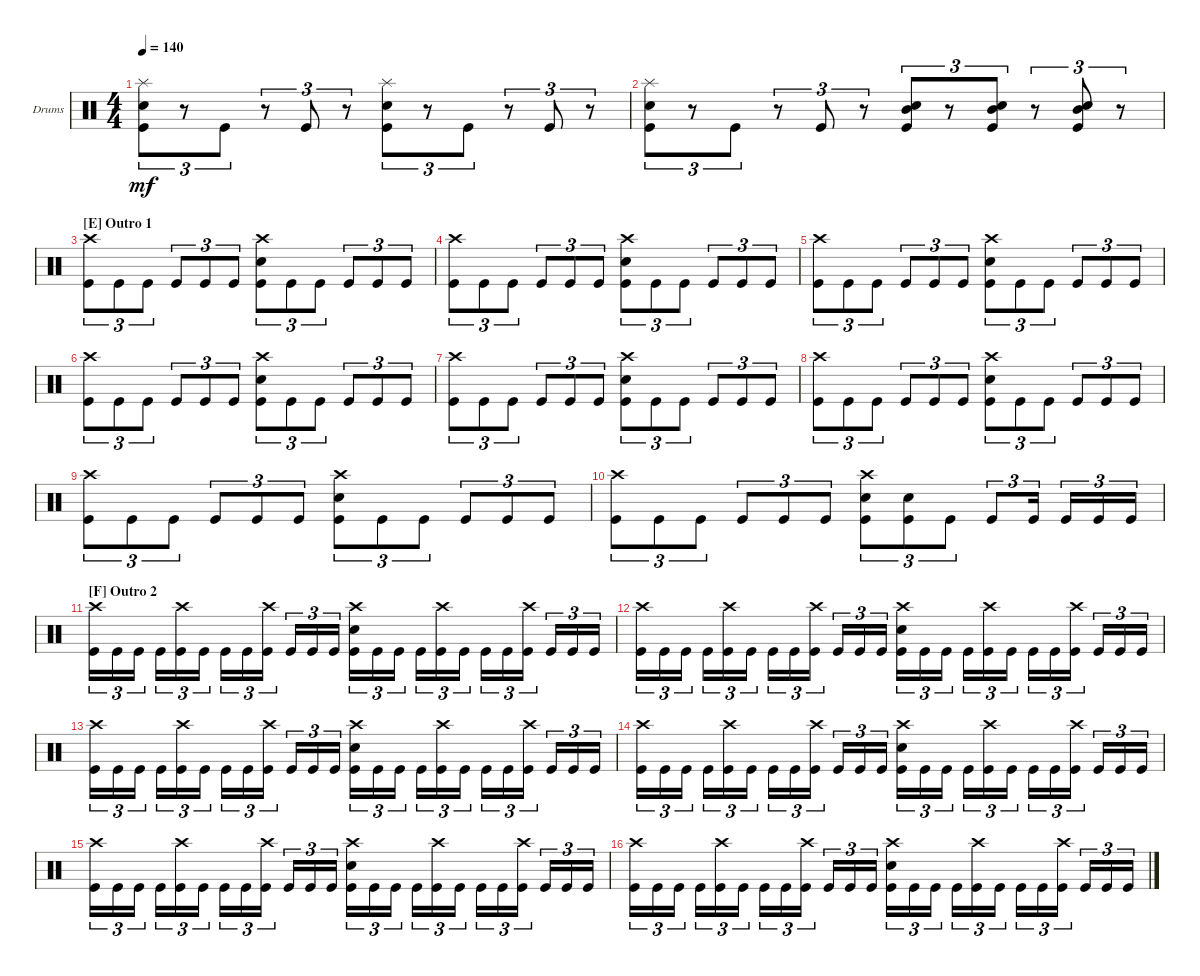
\bracketExtendMode groupsimilarinstruments
\firstSystemTrackNameOrientation horizontal
\otherSystemsTrackNameOrientation horizontal
\track ("Drumkit" "Drums") {instrument percussion}
\staff {score}
\articulation defaults
\ts (4 4)
\tempo 140
\clef neutral
\ks c
("Kick (hit)" "Snare (hit) 2" "Splash (hit)").8{tu (3 2) dy mf} r.8{tu (3 2)} "Kick (hit)".8{tu (3 2)} r.8{tu (3 2)} "Kick (hit)".8{tu (3 2)} r.8{tu (3 2)} ("Snare (hit) 2" "Kick (hit)" "Splash (hit)").8{tu (3 2)} r.8{tu (3 2)} "Kick (hit)".8{tu (3 2)} r.8{tu (3 2)} "Kick (hit)".8{tu (3 2)} r.8{tu (3 2)} |
("Kick (hit)" "Snare (hit) 2" "Splash (hit)").8{tu (3 2)} r.8{tu (3 2)} "Kick (hit)".8{tu (3 2)} r.8{tu (3 2)} "Kick (hit)".8{tu (3 2)} r.8{tu (3 2)} ("Snare (hit) 2" "Kick (hit)" "Mid Tom (hit)").8{tu (3 2)} r.8{tu (3 2)} ("Kick (hit)" "Snare (hit) 2" "Mid Tom (hit)").8{tu (3 2)} r.8{tu (3 2)} ("Kick (hit)" "Snare (hit) 2" "Mid Tom (hit)").8{tu (3 2)} r.8{tu (3 2)} |
\section ("E" "Outro 1")
("Kick (hit)" "Crash high (hit)").8{tu (3 2)} "Kick (hit)".8{tu (3 2)} "Kick (hit)".8{tu (3 2)} "Kick (hit)".8{tu (3 2)} "Kick (hit)".8{tu (3 2)} "Kick (hit)".8{tu (3 2)} ("Kick (hit)" "Snare (hit) 2" "Crash high (hit)").8{tu (3 2)} "Kick (hit)".8{tu (3 2)} "Kick (hit)".8{tu (3 2)} "Kick (hit)".8{tu (3 2)} "Kick (hit)".8{tu (3 2)} "Kick (hit)".8{tu (3 2)} |
("Kick (hit)" "Crash high (hit)").8{tu (3 2)} "Kick (hit)".8{tu (3 2)} "Kick (hit)".8{tu (3 2)} "Kick (hit)".8{tu (3 2)} "Kick (hit)".8{tu (3 2)} "Kick (hit)".8{tu (3 2)} ("Kick (hit)" "Snare (hit) 2" "Crash high (hit)").8{tu (3 2)} "Kick (hit)".8{tu (3 2)} "Kick (hit)".8{tu (3 2)} "Kick (hit)".8{tu (3 2)} "Kick (hit)".8{tu (3 2)} "Kick (hit)".8{tu (3 2)} |
("Kick (hit)" "Crash high (hit)").8{tu (3 2)} "Kick (hit)".8{tu (3 2)} "Kick (hit)".8{tu (3 2)} "Kick (hit)".8{tu (3 2)} "Kick (hit)".8{tu (3 2)} "Kick (hit)".8{tu (3 2)} ("Kick (hit)" "Snare (hit) 2" "Crash high (hit)").8{tu (3 2)} "Kick (hit)".8{tu (3 2)} "Kick (hit)".8{tu (3 2)} "Kick (hit)".8{tu (3 2)} "Kick (hit)".8{tu (3 2)} "Kick (hit)".8{tu (3 2)} |
("Kick (hit)" "Crash high (hit)").8{tu (3 2)} "Kick (hit)".8{tu (3 2)} "Kick (hit)".8{tu (3 2)} "Kick (hit)".8{tu (3 2)} "Kick (hit)".8{tu (3 2)} "Kick (hit)".8{tu (3 2)} ("Kick (hit)" "Snare (hit) 2" "Crash high (hit)").8{tu (3 2)} "Kick (hit)".8{tu (3 2)} "Kick (hit)".8{tu (3 2)} "Kick (hit)".8{tu (3 2)} "Kick (hit)".8{tu (3 2)} "Kick (hit)".8{tu (3 2)} |
("Kick (hit)" "Crash high (hit)").8{tu (3 2)} "Kick (hit)".8{tu (3 2)} "Kick (hit)".8{tu (3 2)} "Kick (hit)".8{tu (3 2)} "Kick (hit)".8{tu (3 2)} "Kick (hit)".8{tu (3 2)} ("Kick (hit)" "Snare (hit) 2" "Crash high (hit)").8{tu (3 2)} "Kick (hit)".8{tu (3 2)} "Kick (hit)".8{tu (3 2)} "Kick (hit)".8{tu (3 2)} "Kick (hit)".8{tu (3 2)} "Kick (hit)".8{tu (3 2)} |
("Kick (hit)" "Crash high (hit)").8{tu (3 2)} "Kick (hit)".8{tu (3 2)} "Kick (hit)".8{tu (3 2)} "Kick (hit)".8{tu (3 2)} "Kick (hit)".8{tu (3 2)} "Kick (hit)".8{tu (3 2)} ("Kick (hit)" "Snare (hit) 2" "Crash high (hit)").8{tu (3 2)} "Kick (hit)".8{tu (3 2)} "Kick (hit)".8{tu (3 2)} "Kick (hit)".8{tu (3 2)} "Kick (hit)".8{tu (3 2)} "Kick (hit)".8{tu (3 2)} |
("Kick (hit)" "Crash high (hit)").8{tu (3 2)} "Kick (hit)".8{tu (3 2)} "Kick (hit)".8{tu (3 2)} "Kick (hit)".8{tu (3 2)} "Kick (hit)".8{tu (3 2)} "Kick (hit)".8{tu (3 2)} ("Kick (hit)" "Snare (hit) 2" "Crash high (hit)").8{tu (3 2)} "Kick (hit)".8{tu (3 2)} "Kick (hit)".8{tu (3 2)} "Kick (hit)".8{tu (3 2)} "Kick (hit)".8{tu (3 2)} "Kick (hit)".8{tu (3 2)} |
("Kick (hit)" "Crash high (hit)").8{tu (3 2)} "Kick (hit)".8{tu (3 2)} "Kick (hit)".8{tu (3 2)} "Kick (hit)".8{tu (3 2)} "Kick (hit)".8{tu (3 2)} "Kick (hit)".8{tu (3 2)} ("Kick (hit)" "Snare (hit) 2" "Crash high (hit)").8{tu (3 2)} ("Kick (hit)" "Snare (hit) 2").8{tu (3 2)} "Kick (hit)".8{tu (3 2)} "Kick (hit)".8{tu (3 2)} "Kick (hit)".16{tu (3 2)} "Kick (hit)".16{tu (3 2)} "Kick (hit)".16{tu (3 2)} "Kick (hit)".16{tu (3 2)} |
\section ("F" "Outro 2")
("Kick (hit)" "Crash high (hit)").16{tu (3 2)} "Kick (hit)".16{tu (3 2)} "Kick (hit)".16{tu (3 2)} "Kick (hit)".16{tu (3 2)} ("Kick (hit)" "Crash high (hit)").16{tu (3 2)} "Kick (hit)".16{tu (3 2)} "Kick (hit)".16{tu (3 2)} "Kick (hit)".16{tu (3 2)} ("Kick (hit)" "Crash high (hit)").16{tu (3 2)} "Kick (hit)".16{tu (3 2)} "Kick (hit)".16{tu (3 2)} "Kick (hit)".16{tu (3 2)} ("Kick (hit)" "Snare (hit) 2" "Crash high (hit)").16{tu (3 2)} "Kick (hit)".16{tu (3 2)} "Kick (hit)".16{tu (3 2)} "Kick (hit)".16{tu (3 2)} ("Kick (hit)" "Crash high (hit)").16{tu (3 2)} "Kick (hit)".16{tu (3 2)} "Kick (hit)".16{tu (3 2)} "Kick (hit)".16{tu (3 2)} ("Kick (hit)" "Crash high (hit)").16{tu (3 2)} "Kick (hit)".16{tu (3 2)} "Kick (hit)".16{tu (3 2)} "Kick (hit)".16{tu (3 2)} |
("Kick (hit)" "Crash high (hit)").16{tu (3 2)} "Kick (hit)".16{tu (3 2)} "Kick (hit)".16{tu (3 2)} "Kick (hit)".16{tu (3 2)} ("Kick (hit)" "Crash high (hit)").16{tu (3 2)} "Kick (hit)".16{tu (3 2)} "Kick (hit)".16{tu (3 2)} "Kick (hit)".16{tu (3 2)} ("Kick (hit)" "Crash high (hit)").16{tu (3 2)} "Kick (hit)".16{tu (3 2)} "Kick (hit)".16{tu (3 2)} "Kick (hit)".16{tu (3 2)} ("Kick (hit)" "Snare (hit) 2" "Crash high (hit)").16{tu (3 2)} "Kick (hit)".16{tu (3 2)} "Kick (hit)".16{tu (3 2)} "Kick (hit)".16{tu (3 2)} ("Kick (hit)" "Crash high (hit)").16{tu (3 2)} "Kick (hit)".16{tu (3 2)} "Kick (hit)".16{tu (3 2)} "Kick (hit)".16{tu (3 2)} ("Kick (hit)" "Crash high (hit)").16{tu (3 2)} "Kick (hit)".16{tu (3 2)} "Kick (hit)".16{tu (3 2)} "Kick (hit)".16{tu (3 2)} |
("Kick (hit)" "Crash high (hit)").16{tu (3 2)} "Kick (hit)".16{tu (3 2)} "Kick (hit)".16{tu (3 2)} "Kick (hit)".16{tu (3 2)} ("Kick (hit)" "Crash high (hit)").16{tu (3 2)} "Kick (hit)".16{tu (3 2)} "Kick (hit)".16{tu (3 2)} "Kick (hit)".16{tu (3 2)} ("Kick (hit)" "Crash high (hit)").16{tu (3 2)} "Kick (hit)".16{tu (3 2)} "Kick (hit)".16{tu (3 2)} "Kick (hit)".16{tu (3 2)} ("Kick (hit)" "Snare (hit) 2" "Crash high (hit)").16{tu (3 2)} "Kick (hit)".16{tu (3 2)} "Kick (hit)".16{tu (3 2)} "Kick (hit)".16{tu (3 2)} ("Kick (hit)" "Crash high (hit)").16{tu (3 2)} "Kick (hit)".16{tu (3 2)} "Kick (hit)".16{tu (3 2)} "Kick (hit)".16{tu (3 2)} ("Kick (hit)" "Crash high (hit)").16{tu (3 2)} "Kick (hit)".16{tu (3 2)} "Kick (hit)".16{tu (3 2)} "Kick (hit)".16{tu (3 2)} |
("Kick (hit)" "Crash high (hit)").16{tu (3 2)} "Kick (hit)".16{tu (3 2)} "Kick (hit)".16{tu (3 2)} "Kick (hit)".16{tu (3 2)} ("Kick (hit)" "Crash high (hit)").16{tu (3 2)} "Kick (hit)".16{tu (3 2)} "Kick (hit)".16{tu (3 2)} "Kick (hit)".16{tu (3 2)} ("Kick (hit)" "Crash high (hit)").16{tu (3 2)} "Kick (hit)".16{tu (3 2)} "Kick (hit)".16{tu (3 2)} "Kick (hit)".16{tu (3 2)} ("Kick (hit)" "Snare (hit) 2" "Crash high (hit)").16{tu (3 2)} "Kick (hit)".16{tu (3 2)} "Kick (hit)".16{tu (3 2)} "Kick (hit)".16{tu (3 2)} ("Kick (hit)" "Crash high (hit)").16{tu (3 2)} "Kick (hit)".16{tu (3 2)} "Kick (hit)".16{tu (3 2)} "Kick (hit)".16{tu (3 2)} ("Kick (hit)" "Crash high (hit)").16{tu (3 2)} "Kick (hit)".16{tu (3 2)} "Kick (hit)".16{tu (3 2)} "Kick (hit)".16{tu (3 2)} |
("Kick (hit)" "Crash high (hit)").16{tu (3 2)} "Kick (hit)".16{tu (3 2)} "Kick (hit)".16{tu (3 2)} "Kick (hit)".16{tu (3 2)} ("Kick (hit)" "Crash high (hit)").16{tu (3 2)} "Kick (hit)".16{tu (3 2)} "Kick (hit)".16{tu (3 2)} "Kick (hit)".16{tu (3 2)} ("Kick (hit)" "Crash high (hit)").16{tu (3 2)} "Kick (hit)".16{tu (3 2)} "Kick (hit)".16{tu (3 2)} "Kick (hit)".16{tu (3 2)} ("Kick (hit)" "Snare (hit) 2" "Crash high (hit)").16{tu (3 2)} "Kick (hit)".16{tu (3 2)} "Kick (hit)".16{tu (3 2)} "Kick (hit)".16{tu (3 2)} ("Kick (hit)" "Crash high (hit)").16{tu (3 2)} "Kick (hit)".16{tu (3 2)} "Kick (hit)".16{tu (3 2)} "Kick (hit)".16{tu (3 2)} ("Kick (hit)" "Crash high (hit)").16{tu (3 2)} "Kick (hit)".16{tu (3 2)} "Kick (hit)".16{tu (3 2)} "Kick (hit)".16{tu (3 2)} |
("Kick (hit)" "Crash high (hit)").16{tu (3 2)} "Kick (hit)".16{tu (3 2)} "Kick (hit)".16{tu (3 2)} "Kick (hit)".16{tu (3 2)} ("Kick (hit)" "Crash high (hit)").16{tu (3 2)} "Kick (hit)".16{tu (3 2)} "Kick (hit)".16{tu (3 2)} "Kick (hit)".16{tu (3 2)} ("Kick (hit)" "Crash high (hit)").16{tu (3 2)} "Kick (hit)".16{tu (3 2)} "Kick (hit)".16{tu (3 2)} "Kick (hit)".16{tu (3 2)} ("Kick (hit)" "Snare (hit) 2" "Crash high (hit)").16{tu (3 2)} "Kick (hit)".16{tu (3 2)} "Kick (hit)".16{tu (3 2)} "Kick (hit)".16{tu (3 2)} ("Kick (hit)" "Crash high (hit)").16{tu (3 2)} "Kick (hit)".16{tu (3 2)} "Kick (hit)".16{tu (3 2)} "Kick (hit)".16{tu (3 2)} ("Kick (hit)" "Crash high (hit)").16{tu (3 2)} "Kick (hit)".16{tu (3 2)} "Kick (hit)".16{tu (3 2)} "Kick (hit)".16{tu (3 2)}
